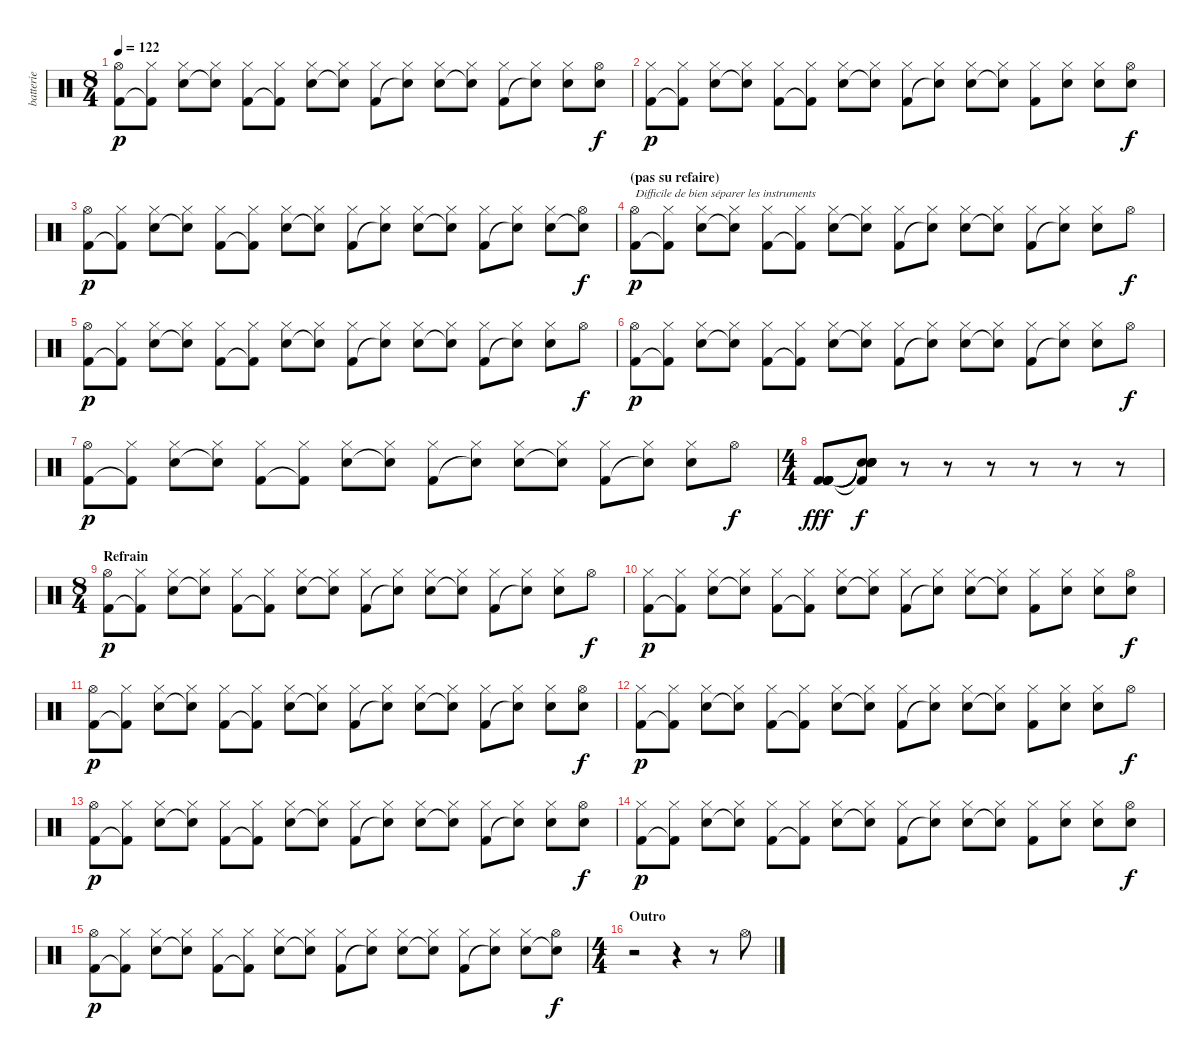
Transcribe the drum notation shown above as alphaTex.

\track ("batterie" "batterie") {instrument percussion}
\staff {score}
\articulation defaults
\ts (8 4)
\tempo 122
\clef neutral
\ks c
("Hi-Hat (open)" "Kick (hit) 2").8{dy p} ("Hi-Hat (closed)" "Kick (hit) 2"{t}).8 ("Hi-Hat (closed)" "Snare (hit) 2").8 ("Hi-Hat (closed)" "Snare (hit) 2"{t}).8 ("Hi-Hat (closed)" "Kick (hit) 2").8 ("Hi-Hat (closed)" "Kick (hit) 2"{t}).8 ("Hi-Hat (closed)" "Snare (hit) 2").8 ("Hi-Hat (closed)" "Snare (hit) 2"{t}).8 ("Hi-Hat (closed)" "Kick (hit) 2").8 ("Hi-Hat (closed)" "Snare (hit)"{t}).8 ("Hi-Hat (closed)" "Snare (hit) 2").8 ("Hi-Hat (closed)" "Snare (hit)"{t}).8 ("Hi-Hat (closed)" "Kick (hit) 2").8 ("Hi-Hat (closed)" "Snare (hit)"{t}).8 ("Hi-Hat (closed)" "Snare (hit) 2").8 ("Hi-Hat (open)" "Snare (hit) 2").8{dy f} |
("Hi-Hat (closed)" "Kick (hit) 2").8{dy p} ("Hi-Hat (closed)" "Kick (hit) 2"{t}).8 ("Hi-Hat (closed)" "Snare (hit) 2").8 ("Hi-Hat (closed)" "Snare (hit) 2"{t}).8 ("Hi-Hat (closed)" "Kick (hit) 2").8 ("Hi-Hat (closed)" "Kick (hit) 2"{t}).8 ("Hi-Hat (closed)" "Snare (hit) 2").8 ("Hi-Hat (closed)" "Snare (hit) 2"{t}).8 ("Hi-Hat (closed)" "Kick (hit) 2").8 ("Hi-Hat (closed)" "Snare (hit)"{t}).8 ("Hi-Hat (closed)" "Snare (hit) 2").8 ("Hi-Hat (closed)" "Snare (hit)"{t}).8 ("Hi-Hat (closed)" "Kick (hit) 2").8 ("Hi-Hat (closed)" "Snare (hit) 2").8 ("Hi-Hat (closed)" "Snare (hit) 2").8 ("Hi-Hat (open)" "Snare (hit) 2").8{dy f} |
("Hi-Hat (open)" "Kick (hit) 2").8{dy p} ("Hi-Hat (closed)" "Kick (hit) 2"{t}).8 ("Hi-Hat (closed)" "Snare (hit) 2").8 ("Hi-Hat (closed)" "Snare (hit) 2"{t}).8 ("Hi-Hat (closed)" "Kick (hit) 2").8 ("Hi-Hat (closed)" "Kick (hit) 2"{t}).8 ("Hi-Hat (closed)" "Snare (hit) 2").8 ("Hi-Hat (closed)" "Snare (hit) 2"{t}).8 ("Hi-Hat (closed)" "Kick (hit) 2").8 ("Hi-Hat (closed)" "Snare (hit)"{t}).8 ("Hi-Hat (closed)" "Snare (hit) 2").8 ("Hi-Hat (closed)" "Snare (hit)"{t}).8 ("Hi-Hat (closed)" "Kick (hit) 2").8 ("Hi-Hat (closed)" "Snare (hit)"{t}).8 ("Hi-Hat (closed)" "Snare (hit) 2").8 ("Hi-Hat (open)" "Snare (hit) 2"{t}).8{dy f} |
\section ("" "(pas su refaire)")
("Hi-Hat (open)" "Kick (hit) 2").8{txt "Difficile de bien séparer les instruments" dy p} ("Hi-Hat (closed)" "Kick (hit) 2"{t}).8 ("Hi-Hat (closed)" "Snare (hit) 2").8 ("Hi-Hat (closed)" "Snare (hit) 2"{t}).8 ("Hi-Hat (closed)" "Kick (hit) 2").8 ("Hi-Hat (closed)" "Kick (hit) 2"{t}).8 ("Hi-Hat (closed)" "Snare (hit) 2").8 ("Hi-Hat (closed)" "Snare (hit) 2"{t}).8 ("Hi-Hat (closed)" "Kick (hit) 2").8 ("Hi-Hat (closed)" "Snare (hit)"{t}).8 ("Hi-Hat (closed)" "Snare (hit) 2").8 ("Hi-Hat (closed)" "Snare (hit)"{t}).8 ("Hi-Hat (closed)" "Kick (hit) 2").8 ("Hi-Hat (closed)" "Snare (hit)"{t}).8 ("Hi-Hat (closed)" "Snare (hit) 2").8 "Hi-Hat (open)".8{dy f} |
("Hi-Hat (open)" "Kick (hit) 2").8{dy p} ("Hi-Hat (closed)" "Kick (hit) 2"{t}).8 ("Hi-Hat (closed)" "Snare (hit) 2").8 ("Hi-Hat (closed)" "Snare (hit) 2"{t}).8 ("Hi-Hat (closed)" "Kick (hit) 2").8 ("Hi-Hat (closed)" "Kick (hit) 2"{t}).8 ("Hi-Hat (closed)" "Snare (hit) 2").8 ("Hi-Hat (closed)" "Snare (hit) 2"{t}).8 ("Hi-Hat (closed)" "Kick (hit) 2").8 ("Hi-Hat (closed)" "Snare (hit)"{t}).8 ("Hi-Hat (closed)" "Snare (hit) 2").8 ("Hi-Hat (closed)" "Snare (hit)"{t}).8 ("Hi-Hat (closed)" "Kick (hit) 2").8 ("Hi-Hat (closed)" "Snare (hit)"{t}).8 ("Hi-Hat (closed)" "Snare (hit) 2").8 "Hi-Hat (open)".8{dy f} |
("Hi-Hat (open)" "Kick (hit) 2").8{dy p} ("Hi-Hat (closed)" "Kick (hit) 2"{t}).8 ("Hi-Hat (closed)" "Snare (hit) 2").8 ("Hi-Hat (closed)" "Snare (hit) 2"{t}).8 ("Hi-Hat (closed)" "Kick (hit) 2").8 ("Hi-Hat (closed)" "Kick (hit) 2"{t}).8 ("Hi-Hat (closed)" "Snare (hit) 2").8 ("Hi-Hat (closed)" "Snare (hit) 2"{t}).8 ("Hi-Hat (closed)" "Kick (hit) 2").8 ("Hi-Hat (closed)" "Snare (hit)"{t}).8 ("Hi-Hat (closed)" "Snare (hit) 2").8 ("Hi-Hat (closed)" "Snare (hit)"{t}).8 ("Hi-Hat (closed)" "Kick (hit) 2").8 ("Hi-Hat (closed)" "Snare (hit)"{t}).8 ("Hi-Hat (closed)" "Snare (hit) 2").8 "Hi-Hat (open)".8{dy f} |
("Hi-Hat (open)" "Kick (hit) 2").8{dy p} ("Hi-Hat (closed)" "Kick (hit) 2"{t}).8 ("Hi-Hat (closed)" "Snare (hit) 2").8 ("Hi-Hat (closed)" "Snare (hit) 2"{t}).8 ("Hi-Hat (closed)" "Kick (hit) 2").8 ("Hi-Hat (closed)" "Kick (hit) 2"{t}).8 ("Hi-Hat (closed)" "Snare (hit) 2").8 ("Hi-Hat (closed)" "Snare (hit) 2"{t}).8 ("Hi-Hat (closed)" "Kick (hit) 2").8 ("Hi-Hat (closed)" "Snare (hit)"{t}).8 ("Hi-Hat (closed)" "Snare (hit) 2").8 ("Hi-Hat (closed)" "Snare (hit)"{t}).8 ("Hi-Hat (closed)" "Kick (hit) 2").8 ("Hi-Hat (closed)" "Snare (hit)"{t}).8 ("Hi-Hat (closed)" "Snare (hit) 2").8 "Hi-Hat (open)".8{dy f} |
\ts (4 4)
("Kick (hit) 2" "Kick (hit) 2" "Kick (hit) 2" "Kick (hit) 2" "Kick (hit) 2").8{dy fff} ("Snare (hit)"{t} "Snare (hit)"{t} "Snare (hit)"{t} "Snare (hit)"{t} "Kick (hit) 2"{t}).8{dy f} r.8 r.8 r.8 r.8 r.8 r.8 |
\ts (8 4)
\section ("" "Refrain")
("Hi-Hat (open)" "Kick (hit) 2").8{dy p} ("Hi-Hat (closed)" "Kick (hit) 2"{t}).8 ("Hi-Hat (closed)" "Snare (hit) 2").8 ("Hi-Hat (closed)" "Snare (hit) 2"{t}).8 ("Hi-Hat (closed)" "Kick (hit) 2").8 ("Hi-Hat (closed)" "Kick (hit) 2"{t}).8 ("Hi-Hat (closed)" "Snare (hit) 2").8 ("Hi-Hat (closed)" "Snare (hit) 2"{t}).8 ("Hi-Hat (closed)" "Kick (hit) 2").8 ("Hi-Hat (closed)" "Snare (hit)"{t}).8 ("Hi-Hat (closed)" "Snare (hit) 2").8 ("Hi-Hat (closed)" "Snare (hit)"{t}).8 ("Hi-Hat (closed)" "Kick (hit) 2").8 ("Hi-Hat (closed)" "Snare (hit)"{t}).8 ("Hi-Hat (closed)" "Snare (hit) 2").8 "Hi-Hat (open)".8{dy f} |
("Hi-Hat (closed)" "Kick (hit) 2").8{dy p} ("Hi-Hat (closed)" "Kick (hit) 2"{t}).8 ("Hi-Hat (closed)" "Snare (hit) 2").8 ("Hi-Hat (closed)" "Snare (hit) 2"{t}).8 ("Hi-Hat (closed)" "Kick (hit) 2").8 ("Hi-Hat (closed)" "Kick (hit) 2"{t}).8 ("Hi-Hat (closed)" "Snare (hit) 2").8 ("Hi-Hat (closed)" "Snare (hit) 2"{t}).8 ("Hi-Hat (closed)" "Kick (hit) 2").8 ("Hi-Hat (closed)" "Snare (hit)"{t}).8 ("Hi-Hat (closed)" "Snare (hit) 2").8 ("Hi-Hat (closed)" "Snare (hit)"{t}).8 ("Hi-Hat (closed)" "Kick (hit) 2").8 ("Hi-Hat (closed)" "Snare (hit) 2").8 ("Hi-Hat (closed)" "Snare (hit) 2").8 ("Hi-Hat (open)" "Snare (hit) 2").8{dy f} |
("Hi-Hat (open)" "Kick (hit) 2").8{dy p} ("Hi-Hat (closed)" "Kick (hit) 2"{t}).8 ("Hi-Hat (closed)" "Snare (hit) 2").8 ("Hi-Hat (closed)" "Snare (hit) 2"{t}).8 ("Hi-Hat (closed)" "Kick (hit) 2").8 ("Hi-Hat (closed)" "Kick (hit) 2"{t}).8 ("Hi-Hat (closed)" "Snare (hit) 2").8 ("Hi-Hat (closed)" "Snare (hit) 2"{t}).8 ("Hi-Hat (closed)" "Kick (hit) 2").8 ("Hi-Hat (closed)" "Snare (hit)"{t}).8 ("Hi-Hat (closed)" "Snare (hit) 2").8 ("Hi-Hat (closed)" "Snare (hit)"{t}).8 ("Hi-Hat (closed)" "Kick (hit) 2").8 ("Hi-Hat (closed)" "Snare (hit)"{t}).8 ("Hi-Hat (closed)" "Snare (hit) 2").8 ("Hi-Hat (open)" "Snare (hit) 2").8{dy f} |
("Hi-Hat (closed)" "Kick (hit) 2").8{dy p} ("Hi-Hat (closed)" "Kick (hit) 2"{t}).8 ("Hi-Hat (closed)" "Snare (hit) 2").8 ("Hi-Hat (closed)" "Snare (hit) 2"{t}).8 ("Hi-Hat (closed)" "Kick (hit) 2").8 ("Hi-Hat (closed)" "Kick (hit) 2"{t}).8 ("Hi-Hat (closed)" "Snare (hit) 2").8 ("Hi-Hat (closed)" "Snare (hit) 2"{t}).8 ("Hi-Hat (closed)" "Kick (hit) 2").8 ("Hi-Hat (closed)" "Snare (hit)"{t}).8 ("Hi-Hat (closed)" "Snare (hit) 2").8 ("Hi-Hat (closed)" "Snare (hit)"{t}).8 ("Hi-Hat (closed)" "Kick (hit) 2").8 ("Hi-Hat (closed)" "Snare (hit) 2").8 ("Hi-Hat (closed)" "Snare (hit) 2").8 "Hi-Hat (open)".8{dy f} |
("Hi-Hat (open)" "Kick (hit) 2").8{dy p} ("Hi-Hat (closed)" "Kick (hit) 2"{t}).8 ("Hi-Hat (closed)" "Snare (hit) 2").8 ("Hi-Hat (closed)" "Snare (hit) 2"{t}).8 ("Hi-Hat (closed)" "Kick (hit) 2").8 ("Hi-Hat (closed)" "Kick (hit) 2"{t}).8 ("Hi-Hat (closed)" "Snare (hit) 2").8 ("Hi-Hat (closed)" "Snare (hit) 2"{t}).8 ("Hi-Hat (closed)" "Kick (hit) 2").8 ("Hi-Hat (closed)" "Snare (hit)"{t}).8 ("Hi-Hat (closed)" "Snare (hit) 2").8 ("Hi-Hat (closed)" "Snare (hit)"{t}).8 ("Hi-Hat (closed)" "Kick (hit) 2").8 ("Hi-Hat (closed)" "Snare (hit)"{t}).8 ("Hi-Hat (closed)" "Snare (hit) 2").8 ("Hi-Hat (open)" "Snare (hit) 2").8{dy f} |
("Hi-Hat (closed)" "Kick (hit) 2").8{dy p} ("Hi-Hat (closed)" "Kick (hit) 2"{t}).8 ("Hi-Hat (closed)" "Snare (hit) 2").8 ("Hi-Hat (closed)" "Snare (hit) 2"{t}).8 ("Hi-Hat (closed)" "Kick (hit) 2").8 ("Hi-Hat (closed)" "Kick (hit) 2"{t}).8 ("Hi-Hat (closed)" "Snare (hit) 2").8 ("Hi-Hat (closed)" "Snare (hit) 2"{t}).8 ("Hi-Hat (closed)" "Kick (hit) 2").8 ("Hi-Hat (closed)" "Snare (hit)"{t}).8 ("Hi-Hat (closed)" "Snare (hit) 2").8 ("Hi-Hat (closed)" "Snare (hit)"{t}).8 ("Hi-Hat (closed)" "Kick (hit) 2").8 ("Hi-Hat (closed)" "Snare (hit) 2").8 ("Hi-Hat (closed)" "Snare (hit) 2").8 ("Hi-Hat (open)" "Snare (hit) 2").8{dy f} |
("Hi-Hat (open)" "Kick (hit) 2").8{dy p} ("Hi-Hat (closed)" "Kick (hit) 2"{t}).8 ("Hi-Hat (closed)" "Snare (hit) 2").8 ("Hi-Hat (closed)" "Snare (hit) 2"{t}).8 ("Hi-Hat (closed)" "Kick (hit) 2").8 ("Hi-Hat (closed)" "Kick (hit) 2"{t}).8 ("Hi-Hat (closed)" "Snare (hit) 2").8 ("Hi-Hat (closed)" "Snare (hit) 2"{t}).8 ("Hi-Hat (closed)" "Kick (hit) 2").8 ("Hi-Hat (closed)" "Snare (hit)"{t}).8 ("Hi-Hat (closed)" "Snare (hit) 2").8 ("Hi-Hat (closed)" "Snare (hit)"{t}).8 ("Hi-Hat (closed)" "Kick (hit) 2").8 ("Hi-Hat (closed)" "Snare (hit)"{t}).8 ("Hi-Hat (closed)" "Snare (hit) 2").8 ("Hi-Hat (open)" "Snare (hit) 2"{t}).8{dy f} |
\ts (4 4)
\section ("" "Outro")
r.2 r.4 r.8 "Hi-Hat (open)".8
